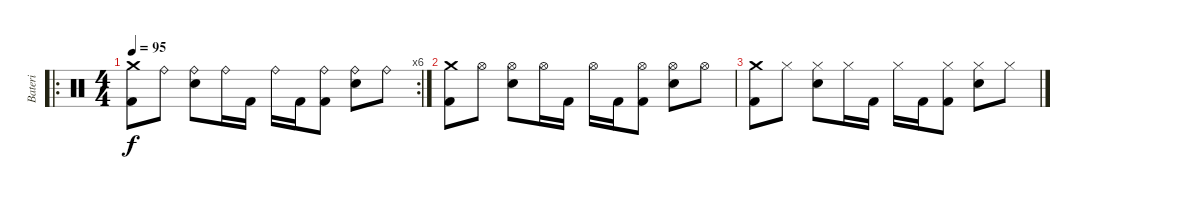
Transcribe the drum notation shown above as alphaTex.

\track ("Bateri" "Bateri") {instrument percussion}
\staff {score}
\articulation defaults
\ro
\rc 6
\ts (4 4)
\tempo 95
\clef neutral
\ks c
("Crash medium (hit)" "Kick (hit) 2").8{dy f} "Ride (bell)".8 ("Ride (bell)" "Snare (hit) 2").8 "Ride (bell)".16 "Kick (hit) 2".16 "Ride (bell)".16 "Kick (hit) 2".16 ("Ride (bell)" "Kick (hit) 2").8 ("Ride (bell)" "Snare (hit) 2").8 "Ride (bell)".8 |
("Crash medium (hit)" "Kick (hit) 2").8 "Hi-Hat (open)".8 ("Hi-Hat (open)" "Snare (hit) 2").8 "Hi-Hat (open)".16 "Kick (hit) 2".16 "Hi-Hat (open)".16 "Kick (hit) 2".16 ("Hi-Hat (open)" "Kick (hit) 2").8 ("Hi-Hat (open)" "Snare (hit) 2").8 "Hi-Hat (open)".8 |
("Crash medium (hit)" "Kick (hit) 2").8 "Hi-Hat (closed)".8 ("Hi-Hat (closed)" "Snare (hit) 2").8 "Hi-Hat (closed)".16 "Kick (hit) 2".16 "Hi-Hat (closed)".16 "Kick (hit) 2".16 ("Hi-Hat (closed)" "Kick (hit) 2").8 ("Hi-Hat (closed)" "Snare (hit) 2").8 "Hi-Hat (closed)".8
